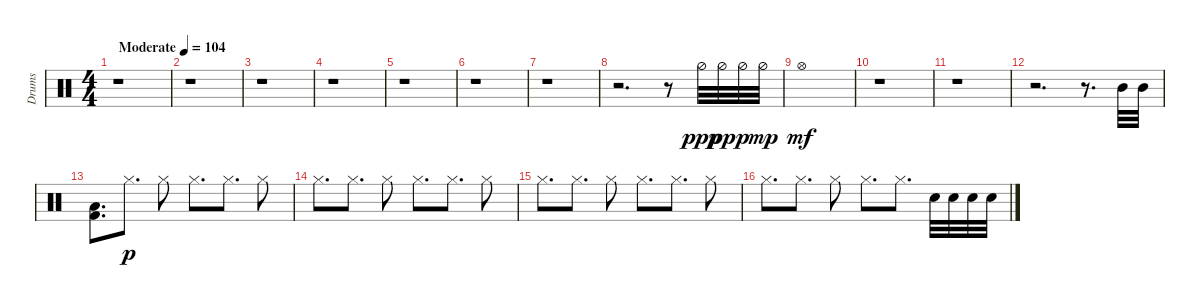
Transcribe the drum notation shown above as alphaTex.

\track ("Drums" "Drums") {instrument percussion}
\staff {score}
\articulation defaults
\ts (4 4)
\tempo (104 "Moderate")
\clef neutral
\ks c
r.1{dy ppp} |
r.1 |
r.1 |
r.1 |
r.1 |
r.1 |
r.1 |
r.2{d} r.8 "Hi-Hat (half)".32 "Hi-Hat (half)".32{dy pp} "Hi-Hat (half)".32{dy p} "Hi-Hat (half)".32{dy mp} |
"Hi-Hat (open)".1{dy mf} |
r.1 |
r.1 |
r.2{d} r.8{d} "Mid Tom (hit)".32 "Mid Tom (hit)".32 |
("Low Tom (hit)" "Kick (hit) 2").8{d} "Hi-Hat (closed)".8{d dy p} "Hi-Hat (closed)".8 "Hi-Hat (closed)".8{d} "Hi-Hat (closed)".8{d} "Hi-Hat (closed)".8 |
"Hi-Hat (closed)".8{d} "Hi-Hat (closed)".8{d} "Hi-Hat (closed)".8 "Hi-Hat (closed)".8{d} "Hi-Hat (closed)".8{d} "Hi-Hat (closed)".8 |
"Hi-Hat (closed)".8{d} "Hi-Hat (closed)".8{d} "Hi-Hat (closed)".8 "Hi-Hat (closed)".8{d} "Hi-Hat (closed)".8{d} "Hi-Hat (closed)".8 |
"Hi-Hat (closed)".8{d} "Hi-Hat (closed)".8{d} "Hi-Hat (closed)".8 "Hi-Hat (closed)".8{d} "Hi-Hat (closed)".8{d} "Snare (hit) 2".32 "Snare (hit) 2".32 "Snare (hit) 2".32 "Snare (hit) 2".32
